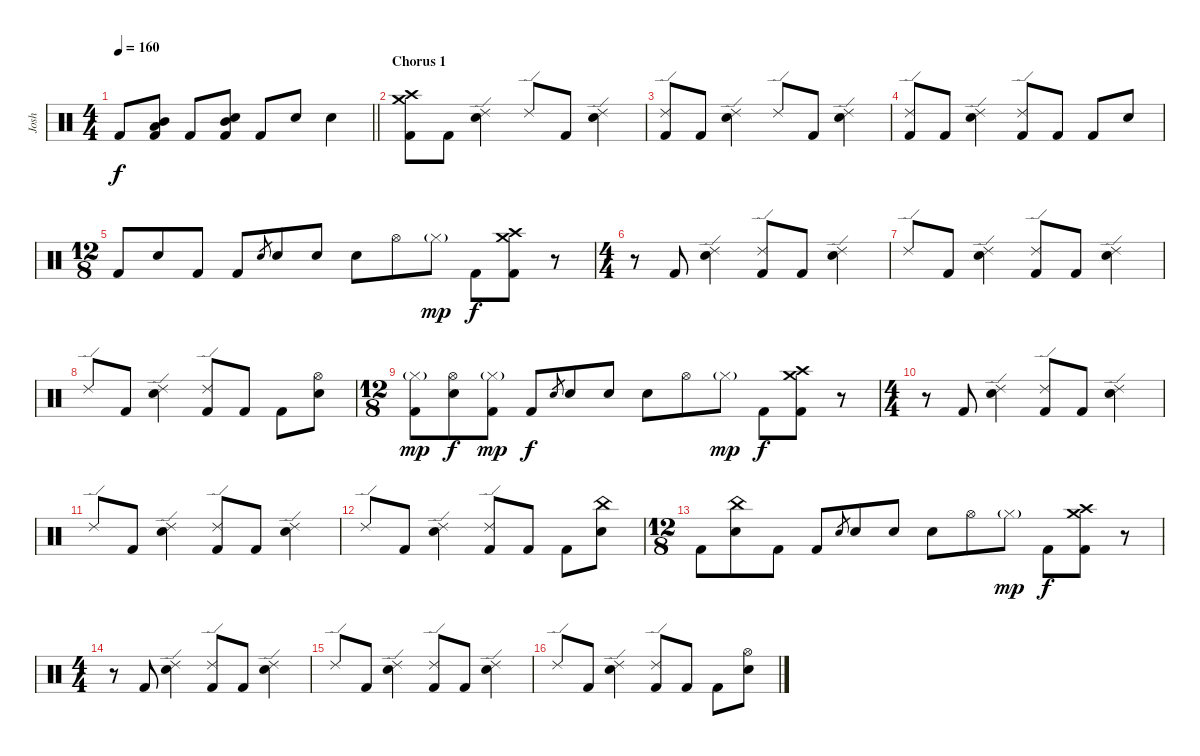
\track ("Josh" "Josh") {instrument percussion}
\staff {score}
\articulation defaults
\ts (4 4)
\tempo 160
\clef neutral
\barLineRight lightlight
\ks c "Kick (hit) 2".8{dy f}
("Mid Tom (hit)" "Low Tom (hit)" "Kick (hit) 2").8 "Kick (hit) 2".8 ("Mid Tom (hit)" "Electric Snare (hit)" "Kick (hit) 2").8 "Kick (hit) 2".8 "Electric Snare (hit)".8 "Electric Snare (hit)".4 |
\section ("" "Chorus 1")
("Crash high (hit)" "Crash medium (hit)" "Kick (hit) 2").8 "Kick (hit) 2".8 ("Ride (edge) 2" "Electric Snare (hit)").4 "Ride (edge) 2".8 "Kick (hit) 2".8 ("Ride (edge) 2" "Electric Snare (hit)").4 |
("Ride (edge) 2" "Kick (hit) 2").8 "Kick (hit) 2".8 ("Ride (edge) 2" "Electric Snare (hit)").4 "Ride (edge) 2".8 "Kick (hit) 2".8 ("Ride (edge) 2" "Electric Snare (hit)").4 |
("Ride (edge) 2" "Kick (hit) 2").8 "Kick (hit) 2".8 ("Ride (edge) 2" "Electric Snare (hit)").4 ("Ride (edge) 2" "Kick (hit) 2").8 "Kick (hit) 2".8 "Kick (hit) 2".8 "Electric Snare (hit)".8 |
\ts (12 8)
"Kick (hit) 2".8 "Electric Snare (hit)".8 "Kick (hit) 2".8 "Kick (hit) 2".8 "Electric Snare (hit)".8{gr} "Electric Snare (hit)".8 "Electric Snare (hit)".8 "Electric Snare (hit)".8 "Hi-Hat (open)".8 "Hi-Hat (closed)"{g}.8{dy mp} "Kick (hit) 2".8{dy f} ("Crash high (hit)" "Crash medium (hit)" "Kick (hit) 2").8 r.8 |
\ts (4 4)
r.8 "Kick (hit) 2".8 ("Ride (edge) 2" "Electric Snare (hit)").4 ("Ride (edge) 2" "Kick (hit) 2").8 "Kick (hit) 2".8 ("Ride (edge) 2" "Electric Snare (hit)").4 |
"Ride (edge) 2".8 "Kick (hit) 2".8 ("Ride (edge) 2" "Electric Snare (hit)").4 ("Ride (edge) 2" "Kick (hit) 2").8 "Kick (hit) 2".8 ("Ride (edge) 2" "Electric Snare (hit)").4 |
"Ride (edge) 2".8 "Kick (hit) 2".8 ("Ride (edge) 2" "Electric Snare (hit)").4 ("Ride (edge) 2" "Kick (hit) 2").8 "Kick (hit) 2".8 "Kick (hit) 2".8 ("Hi-Hat (open)" "Electric Snare (hit)").8 |
\ts (12 8)
("Hi-Hat (closed)"{g} "Kick (hit) 2").8{dy mp} ("Hi-Hat (open)" "Electric Snare (hit)").8{dy f} ("Hi-Hat (closed)"{g} "Kick (hit) 2").8{dy mp} "Kick (hit) 2".8{dy f} "Electric Snare (hit)".8{gr} "Electric Snare (hit)".8 "Electric Snare (hit)".8 "Electric Snare (hit)".8 "Hi-Hat (open)".8 "Hi-Hat (closed)"{g}.8{dy mp} "Kick (hit) 2".8{dy f} ("Crash high (hit)" "Crash medium (hit)" "Kick (hit) 2").8 r.8 |
\ts (4 4)
r.8 "Kick (hit) 2".8 ("Ride (edge) 2" "Electric Snare (hit)").4 ("Ride (edge) 2" "Kick (hit) 2").8 "Kick (hit) 2".8 ("Ride (edge) 2" "Electric Snare (hit)").4 |
"Ride (edge) 2".8 "Kick (hit) 2".8 ("Ride (edge) 2" "Electric Snare (hit)").4 ("Ride (edge) 2" "Kick (hit) 2").8 "Kick (hit) 2".8 ("Ride (edge) 2" "Electric Snare (hit)").4 |
"Ride (edge) 2".8 "Kick (hit) 2".8 ("Ride (edge) 2" "Electric Snare (hit)").4 ("Ride (edge) 2" "Kick (hit) 2").8 "Kick (hit) 2".8 "Kick (hit) 2".8 ("China (hit)" "Electric Snare (hit)").8 |
\ts (12 8)
"Kick (hit) 2".8 ("China (hit)" "Electric Snare (hit)").8 "Kick (hit) 2".8 "Kick (hit) 2".8 "Electric Snare (hit)".8{gr} "Electric Snare (hit)".8 "Electric Snare (hit)".8 "Electric Snare (hit)".8 "Hi-Hat (open)".8 "Hi-Hat (closed)"{g}.8{dy mp} "Kick (hit) 2".8{dy f} ("Crash high (hit)" "Crash medium (hit)" "Kick (hit) 2").8 r.8 |
\ts (4 4)
r.8 "Kick (hit) 2".8 ("Ride (edge) 2" "Electric Snare (hit)").4 ("Ride (edge) 2" "Kick (hit) 2").8 "Kick (hit) 2".8 ("Ride (edge) 2" "Electric Snare (hit)").4 |
"Ride (edge) 2".8 "Kick (hit) 2".8 ("Ride (edge) 2" "Electric Snare (hit)").4 ("Ride (edge) 2" "Kick (hit) 2").8 "Kick (hit) 2".8 ("Ride (edge) 2" "Electric Snare (hit)").4 |
"Ride (edge) 2".8 "Kick (hit) 2".8 ("Ride (edge) 2" "Electric Snare (hit)").4 ("Ride (edge) 2" "Kick (hit) 2").8 "Kick (hit) 2".8 "Kick (hit) 2".8 ("Hi-Hat (open)" "Electric Snare (hit)").8
